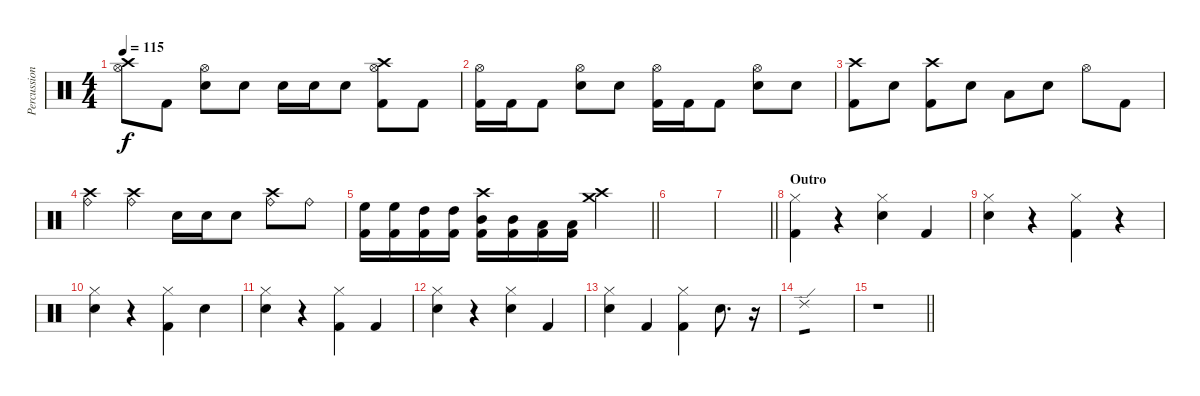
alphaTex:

\track ("Percussion" "Percussion") {instrument percussion}
\staff {score}
\articulation defaults
\ts (4 4)
\tempo 115
\clef neutral
\ks c
("Crash high (hit)" "Hi-Hat (open)").8{dy f} "Kick (hit) 2".8 ("Hi-Hat (open)" "Snare (hit) 2").8 "Snare (hit) 2".8 "Snare (hit) 2".16 "Snare (hit) 2".16 "Snare (hit) 2".8 ("Crash high (hit)" "Hi-Hat (open)" "Kick (hit) 2").8 "Kick (hit) 2".8 |
("Hi-Hat (open)" "Kick (hit) 2").16 "Kick (hit) 2".16 "Kick (hit) 2".8 ("Hi-Hat (open)" "Snare (hit) 2").8 "Snare (hit) 2".8 ("Hi-Hat (open)" "Kick (hit) 2").16 "Kick (hit) 2".16 "Kick (hit) 2".8 ("Hi-Hat (open)" "Snare (hit) 2").8 "Snare (hit) 2".8 |
("Crash high (hit)" "Kick (hit) 2").8 "Snare (hit) 2".8 ("Crash high (hit)" "Kick (hit) 2").8 "Snare (hit) 2".8 "Low Floor Tom (hit)".8 "Snare (hit) 2".8 "Hi-Hat (open)".8 "Kick (hit) 2".8 |
("Crash high (hit)" "Ride (bell)").4 ("Crash high (hit)" "Ride (bell)").4 "Snare (hit) 2".16 "Snare (hit) 2".16 "Snare (hit) 2".8 ("Crash high (hit)" "Ride (bell)").8 "Ride (bell)".8 |
\barLineRight lightlight
("High Floor Tom (hit)" "Kick (hit) 2").16 ("High Floor Tom (hit)" "Kick (hit) 2").16 ("High Tom (hit)" "Kick (hit) 2").16 ("High Tom (hit)" "Kick (hit) 2").16 ("Crash high (hit)" "Mid Tom (hit)" "Kick (hit) 2").16 ("Mid Tom (hit)" "Kick (hit) 2").16 ("Low Tom (hit)" "Kick (hit) 2").16 ("Low Tom (hit)" "Kick (hit) 2").16 ("Crash high (hit)" "Crash medium (hit)").2 |
|
\barLineRight lightlight
|
\section ("" "Outro")
("Hi-Hat (closed)" "Kick (hit) 2").4{volume 6} r.4 ("Hi-Hat (closed)" "Snare (hit) 2").4 "Kick (hit) 2".4 |
("Hi-Hat (closed)" "Snare (hit) 2").4 r.4 ("Hi-Hat (closed)" "Kick (hit) 2").4 r.4 |
("Hi-Hat (closed)" "Snare (hit) 2").4 r.4 ("Hi-Hat (closed)" "Kick (hit) 2").4 "Snare (hit) 2".4 |
("Hi-Hat (closed)" "Snare (hit) 2").4 r.4 ("Hi-Hat (closed)" "Kick (hit) 2").4 "Kick (hit) 2".4 |
("Hi-Hat (closed)" "Snare (hit) 2").4 r.4 ("Hi-Hat (closed)" "Snare (hit) 2").4 "Kick (hit) 2".4 |
("Hi-Hat (closed)" "Snare (hit) 2").4 "Kick (hit) 2".4 ("Hi-Hat (closed)" "Kick (hit) 2").4 "Snare (hit) 2".8{d} r.16{volume 0} |
"Ride (edge) 2".1{tp 1 volume 5} |
\barLineRight lightlight
r.1
